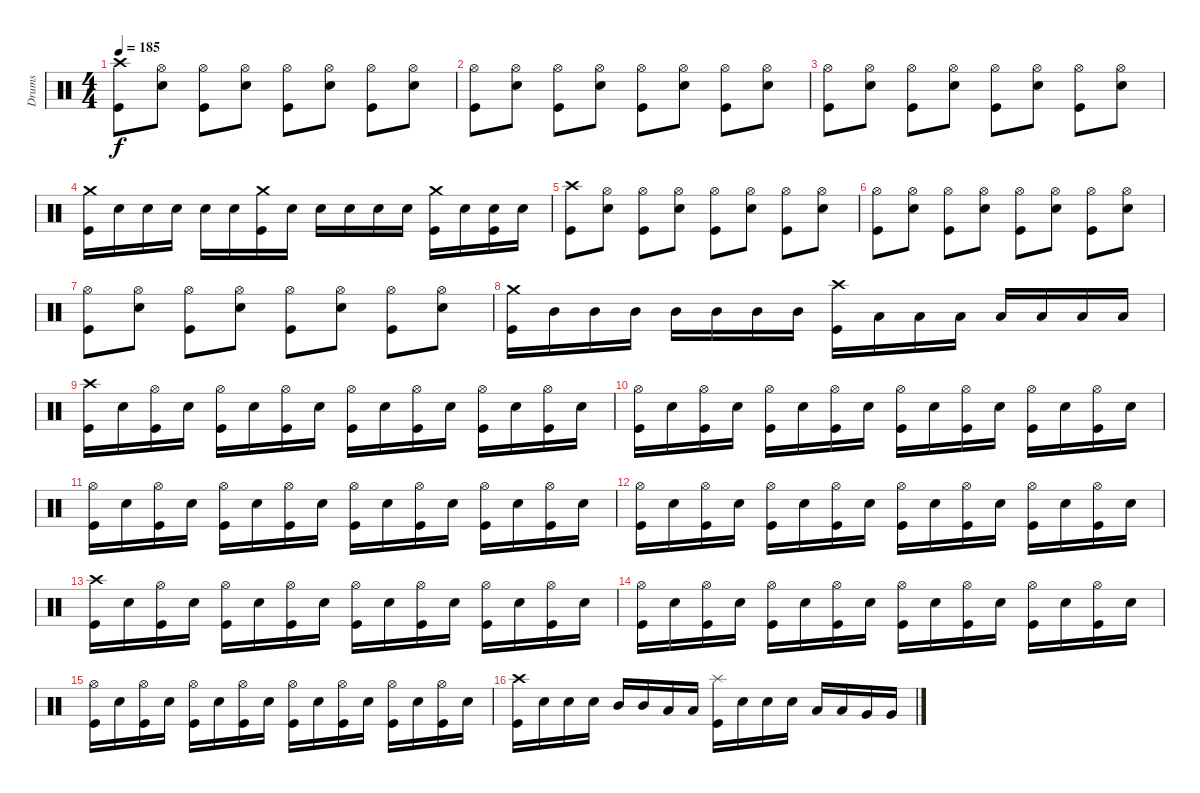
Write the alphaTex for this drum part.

\track ("Drums" "Drums") {instrument percussion}
\staff {score}
\articulation defaults
\ts (4 4)
\tempo 185
\clef neutral
\ks c
("Crash high (hit)" "Kick (hit)").8{dy f} ("Hi-Hat (open)" "Electric Snare (hit)").8 ("Hi-Hat (open)" "Kick (hit)").8 ("Hi-Hat (open)" "Electric Snare (hit)").8 ("Hi-Hat (open)" "Kick (hit)").8 ("Hi-Hat (open)" "Electric Snare (hit)").8 ("Hi-Hat (open)" "Kick (hit)").8 ("Hi-Hat (open)" "Electric Snare (hit)").8 |
("Hi-Hat (open)" "Kick (hit)").8 ("Hi-Hat (open)" "Electric Snare (hit)").8 ("Hi-Hat (open)" "Kick (hit)").8 ("Hi-Hat (open)" "Electric Snare (hit)").8 ("Hi-Hat (open)" "Kick (hit)").8 ("Hi-Hat (open)" "Electric Snare (hit)").8 ("Hi-Hat (open)" "Kick (hit)").8 ("Hi-Hat (open)" "Electric Snare (hit)").8 |
("Hi-Hat (open)" "Kick (hit)").8 ("Hi-Hat (open)" "Electric Snare (hit)").8 ("Hi-Hat (open)" "Kick (hit)").8 ("Hi-Hat (open)" "Electric Snare (hit)").8 ("Hi-Hat (open)" "Kick (hit)").8 ("Hi-Hat (open)" "Electric Snare (hit)").8 ("Hi-Hat (open)" "Kick (hit)").8 ("Hi-Hat (open)" "Electric Snare (hit)").8 |
("Crash medium (hit)" "Kick (hit)").16 "Electric Snare (hit)".16 "Electric Snare (hit)".16 "Electric Snare (hit)".16 "Electric Snare (hit)".16 "Electric Snare (hit)".16 ("Crash medium (hit)" "Kick (hit)").16 "Electric Snare (hit)".16 "Electric Snare (hit)".16 "Electric Snare (hit)".16 "Electric Snare (hit)".16 "Electric Snare (hit)".16 ("Crash medium (hit)" "Kick (hit)").16 "Electric Snare (hit)".16 ("Electric Snare (hit)" "Kick (hit)").16 "Electric Snare (hit)".16 |
("Crash high (hit)" "Kick (hit)").8 ("Hi-Hat (open)" "Electric Snare (hit)").8 ("Hi-Hat (open)" "Kick (hit)").8 ("Hi-Hat (open)" "Electric Snare (hit)").8 ("Hi-Hat (open)" "Kick (hit)").8 ("Hi-Hat (open)" "Electric Snare (hit)").8 ("Hi-Hat (open)" "Kick (hit)").8 ("Hi-Hat (open)" "Electric Snare (hit)").8 |
("Hi-Hat (open)" "Kick (hit)").8 ("Hi-Hat (open)" "Electric Snare (hit)").8 ("Hi-Hat (open)" "Kick (hit)").8 ("Hi-Hat (open)" "Electric Snare (hit)").8 ("Hi-Hat (open)" "Kick (hit)").8 ("Hi-Hat (open)" "Electric Snare (hit)").8 ("Hi-Hat (open)" "Kick (hit)").8 ("Hi-Hat (open)" "Electric Snare (hit)").8 |
("Hi-Hat (open)" "Kick (hit)").8 ("Hi-Hat (open)" "Electric Snare (hit)").8 ("Hi-Hat (open)" "Kick (hit)").8 ("Hi-Hat (open)" "Electric Snare (hit)").8 ("Hi-Hat (open)" "Kick (hit)").8 ("Hi-Hat (open)" "Electric Snare (hit)").8 ("Hi-Hat (open)" "Kick (hit)").8 ("Hi-Hat (open)" "Electric Snare (hit)").8 |
("Crash medium (hit)" "Kick (hit)").16 "Mid Tom (hit)".16 "Mid Tom (hit)".16 "Mid Tom (hit)".16 "Mid Tom (hit)".16 "Mid Tom (hit)".16 "Mid Tom (hit)".16 "Mid Tom (hit)".16 ("Crash high (hit)" "Kick (hit)").16 "Low Tom (hit)".16 "Low Tom (hit)".16 "Low Tom (hit)".16 "Low Tom (hit)".16 "Low Tom (hit)".16 "Low Tom (hit)".16 "Low Tom (hit)".16 |
("Crash high (hit)" "Kick (hit)").16 "Electric Snare (hit)".16 ("Hi-Hat (open)" "Kick (hit)").16 "Electric Snare (hit)".16 ("Hi-Hat (open)" "Kick (hit)").16 "Electric Snare (hit)".16 ("Hi-Hat (open)" "Kick (hit)").16 "Electric Snare (hit)".16 ("Hi-Hat (open)" "Kick (hit)").16 "Electric Snare (hit)".16 ("Hi-Hat (open)" "Kick (hit)").16 "Electric Snare (hit)".16 ("Hi-Hat (open)" "Kick (hit)").16 "Electric Snare (hit)".16 ("Hi-Hat (open)" "Kick (hit)").16 "Electric Snare (hit)".16 |
("Hi-Hat (open)" "Kick (hit)").16 "Electric Snare (hit)".16 ("Hi-Hat (open)" "Kick (hit)").16 "Electric Snare (hit)".16 ("Hi-Hat (open)" "Kick (hit)").16 "Electric Snare (hit)".16 ("Hi-Hat (open)" "Kick (hit)").16 "Electric Snare (hit)".16 ("Hi-Hat (open)" "Kick (hit)").16 "Electric Snare (hit)".16 ("Hi-Hat (open)" "Kick (hit)").16 "Electric Snare (hit)".16 ("Hi-Hat (open)" "Kick (hit)").16 "Electric Snare (hit)".16 ("Hi-Hat (open)" "Kick (hit)").16 "Electric Snare (hit)".16 |
("Hi-Hat (open)" "Kick (hit)").16 "Electric Snare (hit)".16 ("Hi-Hat (open)" "Kick (hit)").16 "Electric Snare (hit)".16 ("Hi-Hat (open)" "Kick (hit)").16 "Electric Snare (hit)".16 ("Hi-Hat (open)" "Kick (hit)").16 "Electric Snare (hit)".16 ("Hi-Hat (open)" "Kick (hit)").16 "Electric Snare (hit)".16 ("Hi-Hat (open)" "Kick (hit)").16 "Electric Snare (hit)".16 ("Hi-Hat (open)" "Kick (hit)").16 "Electric Snare (hit)".16 ("Hi-Hat (open)" "Kick (hit)").16 "Electric Snare (hit)".16 |
("Hi-Hat (open)" "Kick (hit)").16 "Electric Snare (hit)".16 ("Hi-Hat (open)" "Kick (hit)").16 "Electric Snare (hit)".16 ("Hi-Hat (open)" "Kick (hit)").16 "Electric Snare (hit)".16 ("Hi-Hat (open)" "Kick (hit)").16 "Electric Snare (hit)".16 ("Hi-Hat (open)" "Kick (hit)").16 "Electric Snare (hit)".16 ("Hi-Hat (open)" "Kick (hit)").16 "Electric Snare (hit)".16 ("Hi-Hat (open)" "Kick (hit)").16 "Electric Snare (hit)".16 ("Hi-Hat (open)" "Kick (hit)").16 "Electric Snare (hit)".16 |
("Crash high (hit)" "Kick (hit)").16 "Electric Snare (hit)".16 ("Hi-Hat (open)" "Kick (hit)").16 "Electric Snare (hit)".16 ("Hi-Hat (open)" "Kick (hit)").16 "Electric Snare (hit)".16 ("Hi-Hat (open)" "Kick (hit)").16 "Electric Snare (hit)".16 ("Hi-Hat (open)" "Kick (hit)").16 "Electric Snare (hit)".16 ("Hi-Hat (open)" "Kick (hit)").16 "Electric Snare (hit)".16 ("Hi-Hat (open)" "Kick (hit)").16 "Electric Snare (hit)".16 ("Hi-Hat (open)" "Kick (hit)").16 "Electric Snare (hit)".16 |
("Hi-Hat (open)" "Kick (hit)").16 "Electric Snare (hit)".16 ("Hi-Hat (open)" "Kick (hit)").16 "Electric Snare (hit)".16 ("Hi-Hat (open)" "Kick (hit)").16 "Electric Snare (hit)".16 ("Hi-Hat (open)" "Kick (hit)").16 "Electric Snare (hit)".16 ("Hi-Hat (open)" "Kick (hit)").16 "Electric Snare (hit)".16 ("Hi-Hat (open)" "Kick (hit)").16 "Electric Snare (hit)".16 ("Hi-Hat (open)" "Kick (hit)").16 "Electric Snare (hit)".16 ("Hi-Hat (open)" "Kick (hit)").16 "Electric Snare (hit)".16 |
("Hi-Hat (open)" "Kick (hit)").16 "Electric Snare (hit)".16 ("Hi-Hat (open)" "Kick (hit)").16 "Electric Snare (hit)".16 ("Hi-Hat (open)" "Kick (hit)").16 "Electric Snare (hit)".16 ("Hi-Hat (open)" "Kick (hit)").16 "Electric Snare (hit)".16 ("Hi-Hat (open)" "Kick (hit)").16 "Electric Snare (hit)".16 ("Hi-Hat (open)" "Kick (hit)").16 "Electric Snare (hit)".16 ("Hi-Hat (open)" "Kick (hit)").16 "Electric Snare (hit)".16 ("Hi-Hat (open)" "Kick (hit)").16 "Electric Snare (hit)".16 |
("Crash high (hit)" "Kick (hit)").16 "Electric Snare (hit)".16 "Electric Snare (hit)".16 "Electric Snare (hit)".16 "Mid Tom (hit)".16 "Mid Tom (hit)".16 "Low Tom (hit)".16 "Low Tom (hit)".16 ("Splash (hit)" "Kick (hit)").16 "Electric Snare (hit)".16 "Electric Snare (hit)".16 "Electric Snare (hit)".16 "Low Tom (hit)".16 "Low Tom (hit)".16 "Very Low Tom (hit)".16 "Very Low Tom (hit)".16
